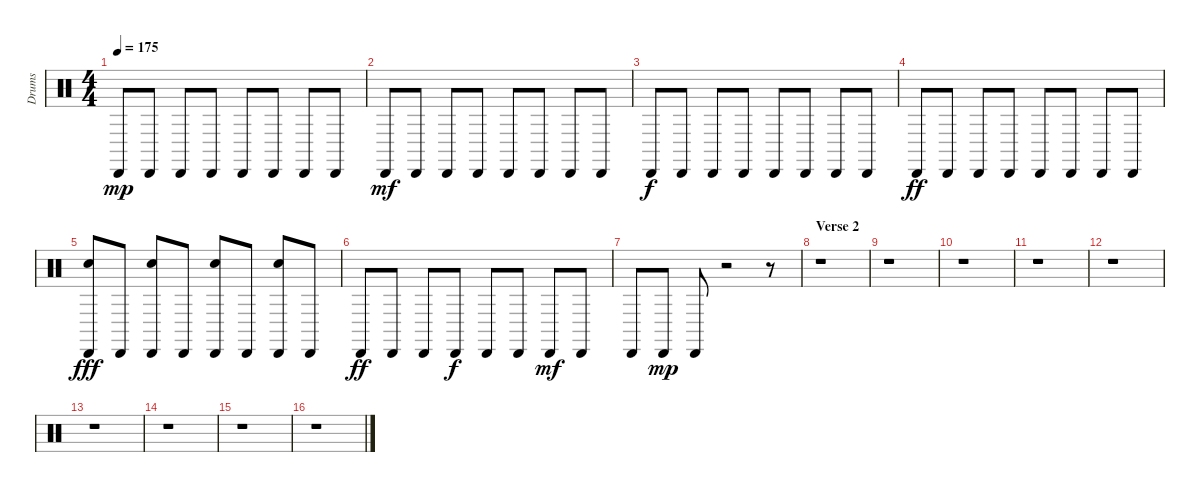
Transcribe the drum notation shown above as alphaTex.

\track ("Drums" "Drums") {instrument percussion}
\staff {score}
\articulation defaults
\ts (4 4)
\tempo 175
\clef neutral
\ks c "Cabasa (hit)".8{dy mp} "Cabasa (hit)".8 "Cabasa (hit)".8 "Cabasa (hit)".8 "Cabasa (hit)".8 "Cabasa (hit)".8 "Cabasa (hit)".8 "Cabasa (hit)".8
|
"Cabasa (hit)".8{dy mf balance 4} "Cabasa (hit)".8 "Cabasa (hit)".8 "Cabasa (hit)".8 "Cabasa (hit)".8{balance 8} "Cabasa (hit)".8 "Cabasa (hit)".8 "Cabasa (hit)".8 |
"Cabasa (hit)".8{dy f} "Cabasa (hit)".8 "Cabasa (hit)".8 "Cabasa (hit)".8 "Cabasa (hit)".8{balance 11} "Cabasa (hit)".8 "Cabasa (hit)".8 "Cabasa (hit)".8 |
"Cabasa (hit)".8{dy ff balance 13} "Cabasa (hit)".8 "Cabasa (hit)".8 "Cabasa (hit)".8 "Cabasa (hit)".8{balance 15} "Cabasa (hit)".8 "Cabasa (hit)".8 "Cabasa (hit)".8 |
("Hand Clap (hit)" "Cabasa (hit)").8{dy fff balance 0} "Cabasa (hit)".8 ("Hand Clap (hit)" "Cabasa (hit)").8{balance 16} "Cabasa (hit)".8 ("Hand Clap (hit)" "Cabasa (hit)").8{balance 1} "Cabasa (hit)".8 ("Hand Clap (hit)" "Cabasa (hit)").8 "Cabasa (hit)".8 |
"Cabasa (hit)".8{dy ff balance 15} "Cabasa (hit)".8 "Cabasa (hit)".8 "Cabasa (hit)".8{dy f} "Cabasa (hit)".8 "Cabasa (hit)".8 "Cabasa (hit)".8{dy mf} "Cabasa (hit)".8 |
"Cabasa (hit)".8{balance 15} "Cabasa (hit)".8{dy mp} "Cabasa (hit)".8 r.2 r.8 |
\section ("" "Verse 2")
r.1 |
r.1 |
r.1 |
r.1 |
r.1 |
r.1 |
r.1 |
r.1 |
r.1
